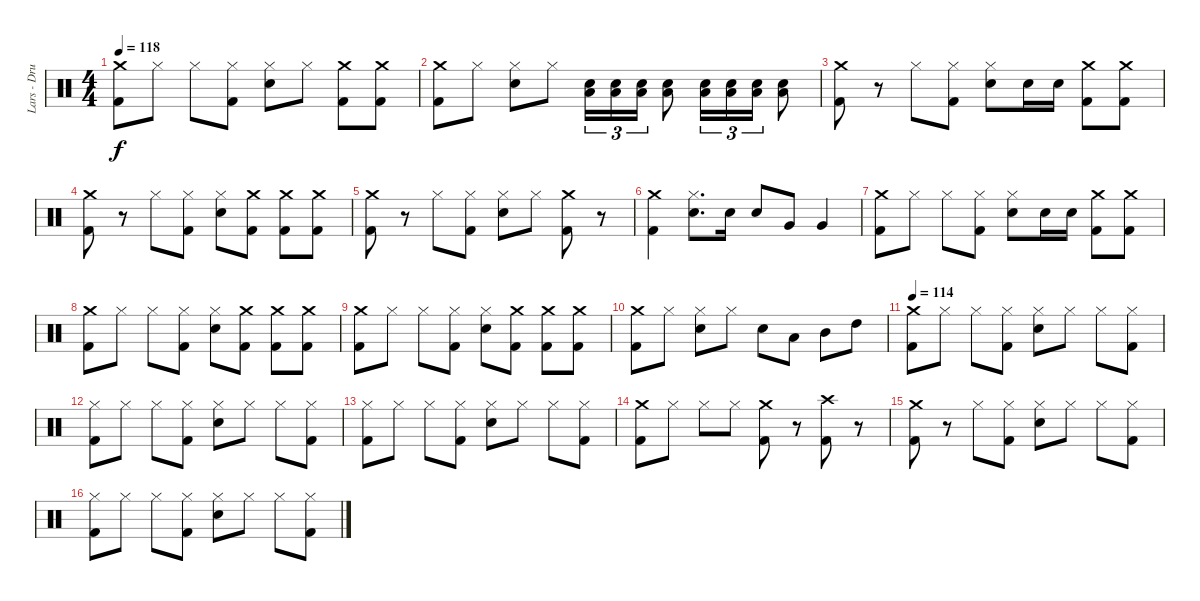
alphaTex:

\track ("Lars - Drums" "Lars - Dru") {instrument percussion}
\staff {score}
\articulation defaults
\ts (4 4)
\tempo 118
\clef neutral
\ks c
("Crash medium (hit)" "Kick (hit) 2").8{dy f} "Hi-Hat (closed)".8 "Hi-Hat (closed)".8 ("Hi-Hat (closed)" "Kick (hit) 2").8 ("Hi-Hat (closed)" "Snare (hit) 2").8 "Hi-Hat (closed)".8 ("Crash medium (hit)" "Kick (hit) 2").8 ("Crash medium (hit)" "Kick (hit) 2").8 |
("Crash medium (hit)" "Kick (hit) 2").8 "Hi-Hat (closed)".8 ("Hi-Hat (closed)" "Snare (hit) 2").8 "Hi-Hat (closed)".8 ("Snare (hit) 2" "Low Floor Tom (hit)").16{tu (3 2)} ("Snare (hit) 2" "Low Floor Tom (hit)").16{tu (3 2)} ("Snare (hit) 2" "Low Floor Tom (hit)").16{tu (3 2)} ("Snare (hit) 2" "Low Floor Tom (hit)").8 ("Snare (hit) 2" "Low Floor Tom (hit)").16{tu (3 2)} ("Snare (hit) 2" "Low Floor Tom (hit)").16{tu (3 2)} ("Snare (hit) 2" "Low Floor Tom (hit)").16{tu (3 2)} ("Snare (hit) 2" "Low Floor Tom (hit)").8 |
("Crash medium (hit)" "Kick (hit) 2").8 r.8 "Hi-Hat (closed)".8 ("Hi-Hat (closed)" "Kick (hit) 2").8 ("Hi-Hat (closed)" "Snare (hit) 2").8 "Snare (hit) 2".16 "Snare (hit) 2".16 ("Crash medium (hit)" "Kick (hit) 2").8 ("Crash medium (hit)" "Kick (hit) 2").8 |
("Crash medium (hit)" "Kick (hit) 2").8 r.8 "Hi-Hat (closed)".8 ("Hi-Hat (closed)" "Kick (hit) 2").8 ("Hi-Hat (closed)" "Snare (hit) 2").8 ("Crash medium (hit)" "Kick (hit) 2").8 ("Crash medium (hit)" "Kick (hit) 2").8 ("Crash medium (hit)" "Kick (hit) 2").8 |
("Crash medium (hit)" "Kick (hit) 2").8 r.8 "Hi-Hat (closed)".8 ("Hi-Hat (closed)" "Kick (hit) 2").8 ("Hi-Hat (closed)" "Snare (hit) 2").8 "Hi-Hat (closed)".8 ("Crash medium (hit)" "Kick (hit) 2").8 r.8 |
("Crash medium (hit)" "Kick (hit) 2").4 ("Hi-Hat (closed)" "Snare (hit) 2").8{d} "Snare (hit) 2".16 "Snare (hit) 2".8 "Very Low Tom (hit)".8 "Very Low Tom (hit)".4 |
("Crash medium (hit)" "Kick (hit) 2").8 "Hi-Hat (closed)".8 "Hi-Hat (closed)".8 ("Hi-Hat (closed)" "Kick (hit) 2").8 ("Hi-Hat (closed)" "Snare (hit) 2").8 "Snare (hit) 2".16 "Snare (hit) 2".16 ("Crash medium (hit)" "Kick (hit) 2").8 ("Crash medium (hit)" "Kick (hit) 2").8 |
("Crash medium (hit)" "Kick (hit) 2").8 "Hi-Hat (closed)".8 "Hi-Hat (closed)".8 ("Hi-Hat (closed)" "Kick (hit) 2").8 ("Hi-Hat (closed)" "Snare (hit) 2").8 ("Crash medium (hit)" "Kick (hit) 2").8 ("Crash medium (hit)" "Kick (hit) 2").8 ("Crash medium (hit)" "Kick (hit) 2").8 |
("Crash medium (hit)" "Kick (hit) 2").8 "Hi-Hat (closed)".8 "Hi-Hat (closed)".8 ("Hi-Hat (closed)" "Kick (hit) 2").8 ("Hi-Hat (closed)" "Snare (hit) 2").8 ("Crash medium (hit)" "Kick (hit) 2").8 ("Crash medium (hit)" "Kick (hit) 2").8 ("Crash medium (hit)" "Kick (hit) 2").8 |
("Crash medium (hit)" "Kick (hit) 2").8 "Hi-Hat (closed)".8 ("Hi-Hat (closed)" "Snare (hit) 2").8 "Hi-Hat (closed)".8 "Snare (hit) 2".8 "Low Tom (hit)".8 "Mid Tom (hit)".8 "High Tom (hit)".8 |
\tempo 114
("Crash medium (hit)" "Kick (hit) 2").8{volume 12} "Hi-Hat (closed)".8 "Hi-Hat (closed)".8 ("Hi-Hat (closed)" "Kick (hit) 2").8 ("Hi-Hat (closed)" "Snare (hit) 2").8 "Hi-Hat (closed)".8 "Hi-Hat (closed)".8 ("Hi-Hat (closed)" "Kick (hit) 2").8 |
("Hi-Hat (closed)" "Kick (hit) 2").8 "Hi-Hat (closed)".8 "Hi-Hat (closed)".8 ("Hi-Hat (closed)" "Kick (hit) 2").8 ("Hi-Hat (closed)" "Snare (hit) 2").8 "Hi-Hat (closed)".8 "Hi-Hat (closed)".8 ("Hi-Hat (closed)" "Kick (hit) 2").8 |
("Hi-Hat (closed)" "Kick (hit) 2").8 "Hi-Hat (closed)".8 "Hi-Hat (closed)".8 ("Hi-Hat (closed)" "Kick (hit) 2").8 ("Hi-Hat (closed)" "Snare (hit) 2").8 "Hi-Hat (closed)".8 "Hi-Hat (closed)".8 ("Hi-Hat (closed)" "Kick (hit) 2").8 |
("Crash medium (hit)" "Kick (hit) 2").8 "Hi-Hat (closed)".8 "Hi-Hat (closed)".8 "Hi-Hat (closed)".8 ("Crash medium (hit)" "Kick (hit) 2").8 r.8 ("Crash high (hit)" "Kick (hit) 2").8 r.8 |
("Crash medium (hit)" "Kick (hit) 2").8 r.8 "Hi-Hat (closed)".8 ("Hi-Hat (closed)" "Kick (hit) 2").8 ("Hi-Hat (closed)" "Snare (hit) 2").8 "Hi-Hat (closed)".8 "Hi-Hat (closed)".8 ("Hi-Hat (closed)" "Kick (hit) 2").8 |
("Hi-Hat (closed)" "Kick (hit) 2").8 "Hi-Hat (closed)".8 "Hi-Hat (closed)".8 ("Hi-Hat (closed)" "Kick (hit) 2").8 ("Hi-Hat (closed)" "Snare (hit) 2").8 "Hi-Hat (closed)".8 "Hi-Hat (closed)".8 ("Hi-Hat (closed)" "Kick (hit) 2").8
